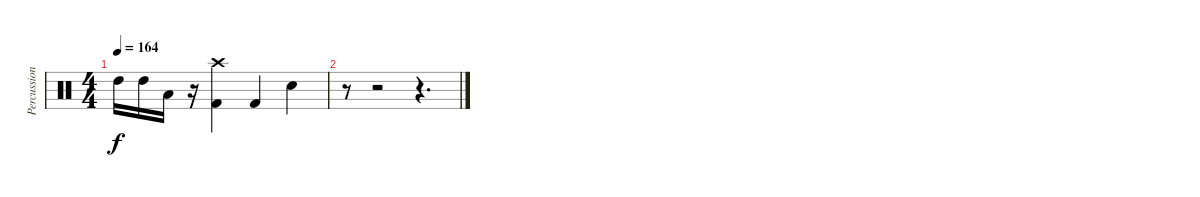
\track ("Percussions" "Percussion") {instrument percussion}
\staff {score}
\articulation defaults
\ts (4 4)
\tempo 164
\clef neutral
\ks c "High Tom (hit)".16{dy f} "High Tom (hit)".16 "Low Tom (hit)".16
r.16 ("Crash high (hit)" "Kick (hit) 2").4 "Kick (hit) 2".4 "Snare (hit) 2".4 |
r.8 r.2 r.4{d}
